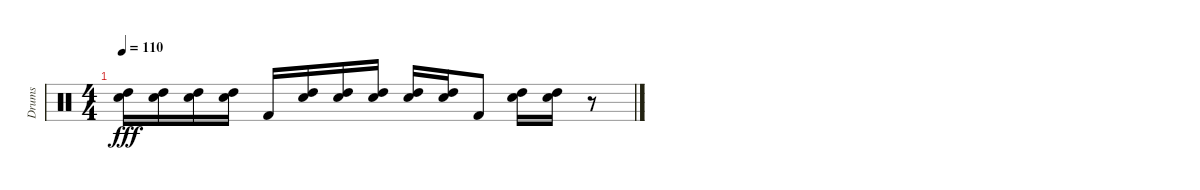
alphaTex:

\track ("Drums" "Drums") {instrument percussion}
\staff {score}
\articulation defaults
\ts (4 4)
\tempo 110
\clef neutral
\ks c
("High Tom (hit)" "Electric Snare (hit)").16{dy fff} ("High Tom (hit)" "Electric Snare (hit)").16 ("High Tom (hit)" "Electric Snare (hit)").16 ("High Tom (hit)" "Electric Snare (hit)").16 "Kick (hit) 2".16 ("High Tom (hit)" "Electric Snare (hit)").16 ("High Tom (hit)" "Electric Snare (hit)").16 ("High Tom (hit)" "Electric Snare (hit)").16 ("High Tom (hit)" "Electric Snare (hit)").16 ("High Tom (hit)" "Electric Snare (hit)").16 "Kick (hit) 2".8 ("High Tom (hit)" "Electric Snare (hit)").16 ("High Tom (hit)" "Electric Snare (hit)").16 r.8
